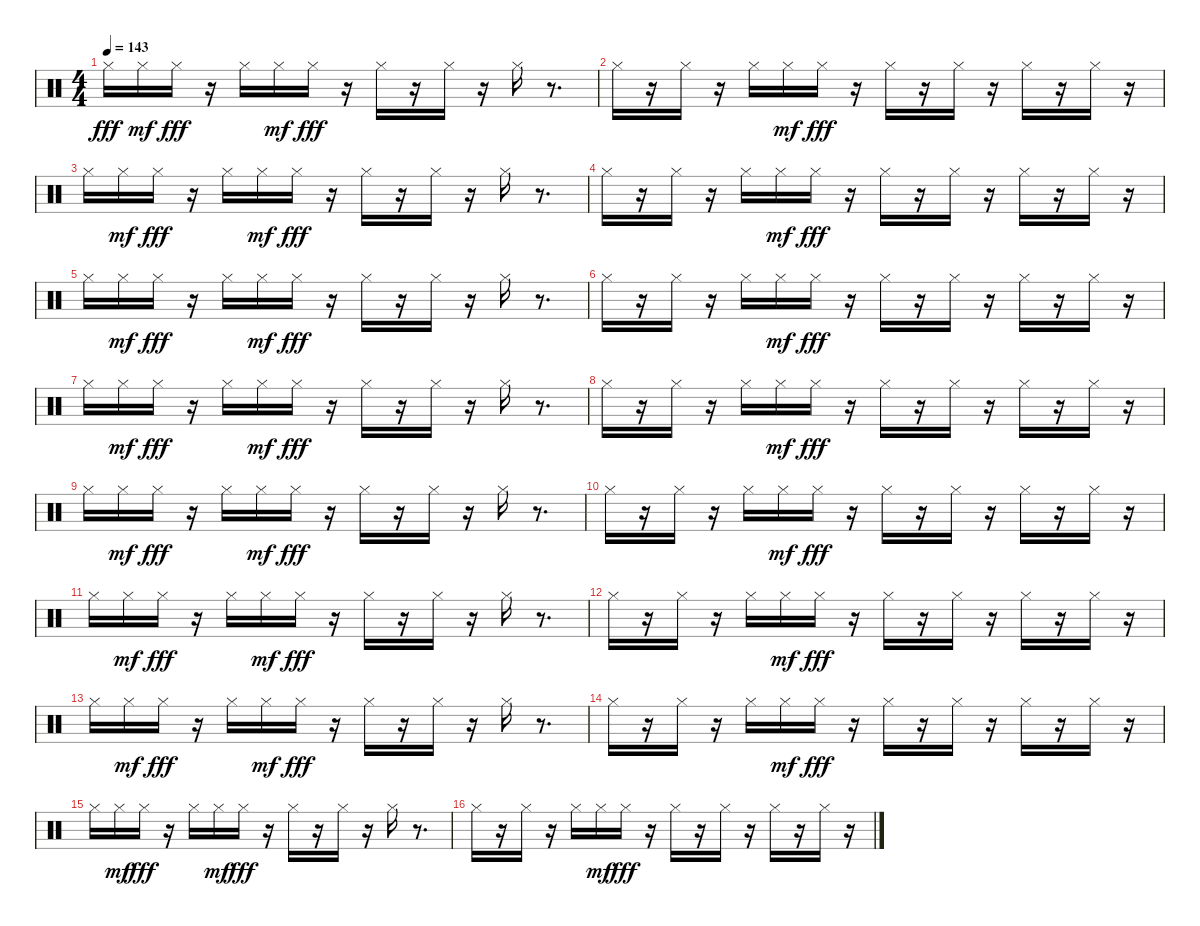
\track "" {instrument percussion}
\staff {score}
\articulation defaults
\ts (4 4)
\tempo 143
\clef neutral
\ks c "Hi-Hat (closed)".16{dy fff} "Hi-Hat (closed)".16{dy mf} "Hi-Hat (closed)".16{dy fff}
r.16 "Hi-Hat (closed)".16 "Hi-Hat (closed)".16{dy mf} "Hi-Hat (closed)".16{dy fff} r.16 "Hi-Hat (closed)".16 r.16 "Hi-Hat (closed)".16 r.16 "Hi-Hat (closed)".16 r.8{d} |
"Hi-Hat (closed)".16 r.16 "Hi-Hat (closed)".16 r.16 "Hi-Hat (closed)".16 "Hi-Hat (closed)".16{dy mf} "Hi-Hat (closed)".16{dy fff} r.16 "Hi-Hat (closed)".16 r.16 "Hi-Hat (closed)".16 r.16 "Hi-Hat (closed)".16 r.16 "Hi-Hat (closed)".16 r.16 |
"Hi-Hat (closed)".16 "Hi-Hat (closed)".16{dy mf} "Hi-Hat (closed)".16{dy fff} r.16 "Hi-Hat (closed)".16 "Hi-Hat (closed)".16{dy mf} "Hi-Hat (closed)".16{dy fff} r.16 "Hi-Hat (closed)".16 r.16 "Hi-Hat (closed)".16 r.16 "Hi-Hat (closed)".16 r.8{d} |
"Hi-Hat (closed)".16 r.16 "Hi-Hat (closed)".16 r.16 "Hi-Hat (closed)".16 "Hi-Hat (closed)".16{dy mf} "Hi-Hat (closed)".16{dy fff} r.16 "Hi-Hat (closed)".16 r.16 "Hi-Hat (closed)".16 r.16 "Hi-Hat (closed)".16 r.16 "Hi-Hat (closed)".16 r.16 |
"Hi-Hat (closed)".16 "Hi-Hat (closed)".16{dy mf} "Hi-Hat (closed)".16{dy fff} r.16 "Hi-Hat (closed)".16 "Hi-Hat (closed)".16{dy mf} "Hi-Hat (closed)".16{dy fff} r.16 "Hi-Hat (closed)".16 r.16 "Hi-Hat (closed)".16 r.16 "Hi-Hat (closed)".16 r.8{d} |
"Hi-Hat (closed)".16 r.16 "Hi-Hat (closed)".16 r.16 "Hi-Hat (closed)".16 "Hi-Hat (closed)".16{dy mf} "Hi-Hat (closed)".16{dy fff} r.16 "Hi-Hat (closed)".16 r.16 "Hi-Hat (closed)".16 r.16 "Hi-Hat (closed)".16 r.16 "Hi-Hat (closed)".16 r.16 |
"Hi-Hat (closed)".16 "Hi-Hat (closed)".16{dy mf} "Hi-Hat (closed)".16{dy fff} r.16 "Hi-Hat (closed)".16 "Hi-Hat (closed)".16{dy mf} "Hi-Hat (closed)".16{dy fff} r.16 "Hi-Hat (closed)".16 r.16 "Hi-Hat (closed)".16 r.16 "Hi-Hat (closed)".16 r.8{d} |
"Hi-Hat (closed)".16 r.16 "Hi-Hat (closed)".16 r.16 "Hi-Hat (closed)".16 "Hi-Hat (closed)".16{dy mf} "Hi-Hat (closed)".16{dy fff} r.16 "Hi-Hat (closed)".16 r.16 "Hi-Hat (closed)".16 r.16 "Hi-Hat (closed)".16 r.16 "Hi-Hat (closed)".16 r.16 |
"Hi-Hat (closed)".16 "Hi-Hat (closed)".16{dy mf} "Hi-Hat (closed)".16{dy fff} r.16 "Hi-Hat (closed)".16 "Hi-Hat (closed)".16{dy mf} "Hi-Hat (closed)".16{dy fff} r.16 "Hi-Hat (closed)".16 r.16 "Hi-Hat (closed)".16 r.16 "Hi-Hat (closed)".16 r.8{d} |
"Hi-Hat (closed)".16 r.16 "Hi-Hat (closed)".16 r.16 "Hi-Hat (closed)".16 "Hi-Hat (closed)".16{dy mf} "Hi-Hat (closed)".16{dy fff} r.16 "Hi-Hat (closed)".16 r.16 "Hi-Hat (closed)".16 r.16 "Hi-Hat (closed)".16 r.16 "Hi-Hat (closed)".16 r.16 |
"Hi-Hat (closed)".16 "Hi-Hat (closed)".16{dy mf} "Hi-Hat (closed)".16{dy fff} r.16 "Hi-Hat (closed)".16 "Hi-Hat (closed)".16{dy mf} "Hi-Hat (closed)".16{dy fff} r.16 "Hi-Hat (closed)".16 r.16 "Hi-Hat (closed)".16 r.16 "Hi-Hat (closed)".16 r.8{d} |
"Hi-Hat (closed)".16 r.16 "Hi-Hat (closed)".16 r.16 "Hi-Hat (closed)".16 "Hi-Hat (closed)".16{dy mf} "Hi-Hat (closed)".16{dy fff} r.16 "Hi-Hat (closed)".16 r.16 "Hi-Hat (closed)".16 r.16 "Hi-Hat (closed)".16 r.16 "Hi-Hat (closed)".16 r.16 |
"Hi-Hat (closed)".16 "Hi-Hat (closed)".16{dy mf} "Hi-Hat (closed)".16{dy fff} r.16 "Hi-Hat (closed)".16 "Hi-Hat (closed)".16{dy mf} "Hi-Hat (closed)".16{dy fff} r.16 "Hi-Hat (closed)".16 r.16 "Hi-Hat (closed)".16 r.16 "Hi-Hat (closed)".16 r.8{d} |
"Hi-Hat (closed)".16 r.16 "Hi-Hat (closed)".16 r.16 "Hi-Hat (closed)".16 "Hi-Hat (closed)".16{dy mf} "Hi-Hat (closed)".16{dy fff} r.16 "Hi-Hat (closed)".16 r.16 "Hi-Hat (closed)".16 r.16 "Hi-Hat (closed)".16 r.16 "Hi-Hat (closed)".16 r.16 |
"Hi-Hat (closed)".16 "Hi-Hat (closed)".16{dy mf} "Hi-Hat (closed)".16{dy fff} r.16 "Hi-Hat (closed)".16 "Hi-Hat (closed)".16{dy mf} "Hi-Hat (closed)".16{dy fff} r.16 "Hi-Hat (closed)".16 r.16 "Hi-Hat (closed)".16 r.16 "Hi-Hat (closed)".16 r.8{d} |
"Hi-Hat (closed)".16 r.16 "Hi-Hat (closed)".16 r.16 "Hi-Hat (closed)".16 "Hi-Hat (closed)".16{dy mf} "Hi-Hat (closed)".16{dy fff} r.16 "Hi-Hat (closed)".16 r.16 "Hi-Hat (closed)".16 r.16 "Hi-Hat (closed)".16 r.16 "Hi-Hat (closed)".16 r.16
